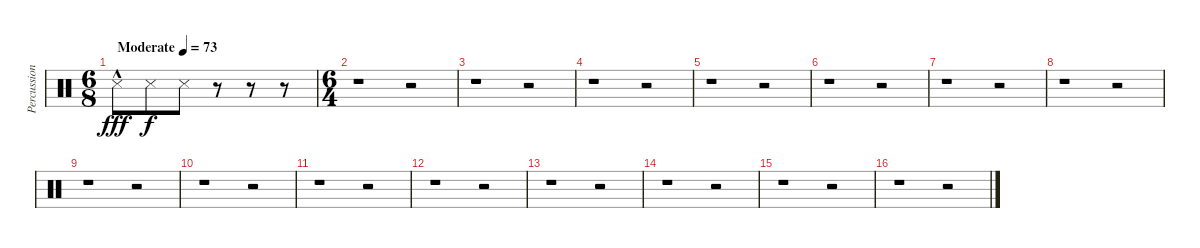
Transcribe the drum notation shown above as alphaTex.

\track ("Percussion" "Percussion") {instrument percussion}
\staff {score}
\articulation defaults
\ts (6 8)
\tempo (73 "Moderate")
\clef neutral
\ks c "Metronome (hit)"{hac}.8{dy fff} "Metronome (hit)".8{dy f} "Metronome (hit)".8
r.8 r.8 r.8 |
\ts (6 4)
r.1 r.2 |
r.1 r.2 |
r.1 r.2 |
r.1 r.2 |
r.1 r.2 |
r.1 r.2 |
r.1 r.2 |
r.1 r.2 |
r.1 r.2 |
r.1 r.2 |
r.1 r.2 |
r.1 r.2 |
r.1 r.2 |
r.1 r.2 |
r.1 r.2
